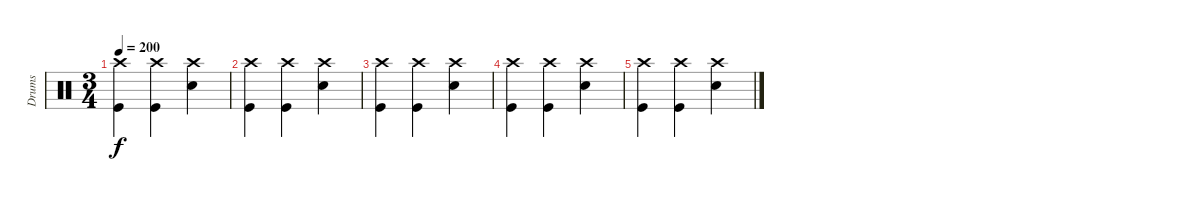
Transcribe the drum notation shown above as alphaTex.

\track ("Drums" "Drums") {instrument percussion}
\staff {score}
\articulation defaults
\ts (3 4)
\tempo 200
\clef neutral
\ks c
("Crash high (hit)" "Kick (hit)").4{dy f} ("Crash high (hit)" "Kick (hit)").4 ("Crash high (hit)" "Snare (hit) 2").4 |
("Crash high (hit)" "Kick (hit)").4 ("Crash high (hit)" "Kick (hit)").4 ("Crash high (hit)" "Snare (hit) 2").4 |
("Crash high (hit)" "Kick (hit)").4 ("Crash high (hit)" "Kick (hit)").4 ("Crash high (hit)" "Snare (hit) 2").4 |
("Crash high (hit)" "Kick (hit)").4 ("Crash high (hit)" "Kick (hit)").4 ("Crash high (hit)" "Snare (hit) 2").4 |
("Crash high (hit)" "Kick (hit)").4 ("Crash high (hit)" "Kick (hit)").4 ("Crash high (hit)" "Snare (hit) 2").4
